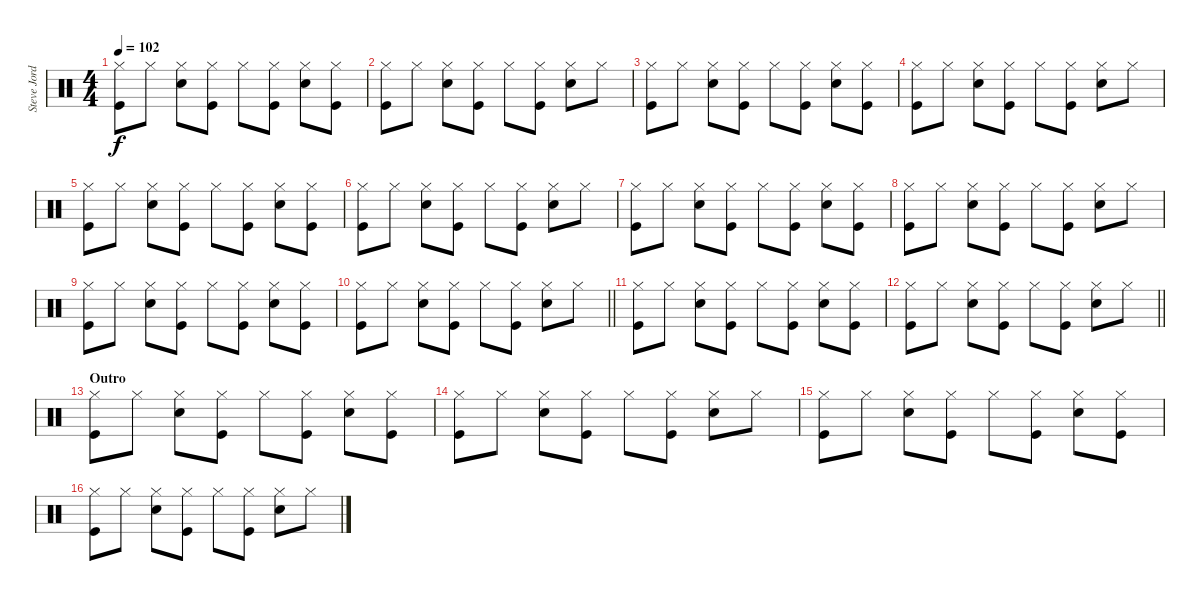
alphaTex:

\track ("Steve Jordan (Drums)" "Steve Jord") {instrument percussion}
\staff {score}
\articulation defaults
\ts (4 4)
\tempo 102
\clef neutral
\ks c
("Hi-Hat (closed)" "Kick (hit)").8{dy f} "Hi-Hat (closed)".8 ("Hi-Hat (closed)" "Snare (hit) 2").8 ("Hi-Hat (closed)" "Kick (hit)").8 "Hi-Hat (closed)".8 ("Hi-Hat (closed)" "Kick (hit)").8 ("Hi-Hat (closed)" "Snare (hit) 2").8 ("Hi-Hat (closed)" "Kick (hit)").8 |
("Hi-Hat (closed)" "Kick (hit)").8 "Hi-Hat (closed)".8 ("Hi-Hat (closed)" "Snare (hit) 2").8 ("Hi-Hat (closed)" "Kick (hit)").8 "Hi-Hat (closed)".8 ("Hi-Hat (closed)" "Kick (hit)").8 ("Hi-Hat (closed)" "Snare (hit) 2").8 "Hi-Hat (closed)".8 |
("Hi-Hat (closed)" "Kick (hit)").8 "Hi-Hat (closed)".8 ("Hi-Hat (closed)" "Snare (hit) 2").8 ("Hi-Hat (closed)" "Kick (hit)").8 "Hi-Hat (closed)".8 ("Hi-Hat (closed)" "Kick (hit)").8 ("Hi-Hat (closed)" "Snare (hit) 2").8 ("Hi-Hat (closed)" "Kick (hit)").8 |
("Hi-Hat (closed)" "Kick (hit)").8 "Hi-Hat (closed)".8 ("Hi-Hat (closed)" "Snare (hit) 2").8 ("Hi-Hat (closed)" "Kick (hit)").8 "Hi-Hat (closed)".8 ("Hi-Hat (closed)" "Kick (hit)").8 ("Hi-Hat (closed)" "Snare (hit) 2").8 "Hi-Hat (closed)".8 |
("Hi-Hat (closed)" "Kick (hit)").8 "Hi-Hat (closed)".8 ("Hi-Hat (closed)" "Snare (hit) 2").8 ("Hi-Hat (closed)" "Kick (hit)").8 "Hi-Hat (closed)".8 ("Hi-Hat (closed)" "Kick (hit)").8 ("Hi-Hat (closed)" "Snare (hit) 2").8 ("Hi-Hat (closed)" "Kick (hit)").8 |
("Hi-Hat (closed)" "Kick (hit)").8 "Hi-Hat (closed)".8 ("Hi-Hat (closed)" "Snare (hit) 2").8 ("Hi-Hat (closed)" "Kick (hit)").8 "Hi-Hat (closed)".8 ("Hi-Hat (closed)" "Kick (hit)").8 ("Hi-Hat (closed)" "Snare (hit) 2").8 "Hi-Hat (closed)".8 |
("Hi-Hat (closed)" "Kick (hit)").8 "Hi-Hat (closed)".8 ("Hi-Hat (closed)" "Snare (hit) 2").8 ("Hi-Hat (closed)" "Kick (hit)").8 "Hi-Hat (closed)".8 ("Hi-Hat (closed)" "Kick (hit)").8 ("Hi-Hat (closed)" "Snare (hit) 2").8 ("Hi-Hat (closed)" "Kick (hit)").8 |
("Hi-Hat (closed)" "Kick (hit)").8 "Hi-Hat (closed)".8 ("Hi-Hat (closed)" "Snare (hit) 2").8 ("Hi-Hat (closed)" "Kick (hit)").8 "Hi-Hat (closed)".8 ("Hi-Hat (closed)" "Kick (hit)").8 ("Hi-Hat (closed)" "Snare (hit) 2").8 "Hi-Hat (closed)".8 |
("Hi-Hat (closed)" "Kick (hit)").8 "Hi-Hat (closed)".8 ("Hi-Hat (closed)" "Snare (hit) 2").8 ("Hi-Hat (closed)" "Kick (hit)").8 "Hi-Hat (closed)".8 ("Hi-Hat (closed)" "Kick (hit)").8 ("Hi-Hat (closed)" "Snare (hit) 2").8 ("Hi-Hat (closed)" "Kick (hit)").8 |
\barLineRight lightlight
("Hi-Hat (closed)" "Kick (hit)").8 "Hi-Hat (closed)".8 ("Hi-Hat (closed)" "Snare (hit) 2").8 ("Hi-Hat (closed)" "Kick (hit)").8 "Hi-Hat (closed)".8 ("Hi-Hat (closed)" "Kick (hit)").8 ("Hi-Hat (closed)" "Snare (hit) 2").8 "Hi-Hat (closed)".8 |
\section ("" "")
("Hi-Hat (closed)" "Kick (hit)").8 "Hi-Hat (closed)".8 ("Hi-Hat (closed)" "Snare (hit) 2").8 ("Hi-Hat (closed)" "Kick (hit)").8 "Hi-Hat (closed)".8 ("Hi-Hat (closed)" "Kick (hit)").8 ("Hi-Hat (closed)" "Snare (hit) 2").8 ("Hi-Hat (closed)" "Kick (hit)").8 |
\barLineRight lightlight
("Hi-Hat (closed)" "Kick (hit)").8 "Hi-Hat (closed)".8 ("Hi-Hat (closed)" "Snare (hit) 2").8 ("Hi-Hat (closed)" "Kick (hit)").8 "Hi-Hat (closed)".8 ("Hi-Hat (closed)" "Kick (hit)").8 ("Hi-Hat (closed)" "Snare (hit) 2").8 "Hi-Hat (closed)".8 |
\section ("" "Outro")
("Hi-Hat (closed)" "Kick (hit)").8 "Hi-Hat (closed)".8 ("Hi-Hat (closed)" "Snare (hit) 2").8 ("Hi-Hat (closed)" "Kick (hit)").8 "Hi-Hat (closed)".8 ("Hi-Hat (closed)" "Kick (hit)").8 ("Hi-Hat (closed)" "Snare (hit) 2").8 ("Hi-Hat (closed)" "Kick (hit)").8 |
("Hi-Hat (closed)" "Kick (hit)").8 "Hi-Hat (closed)".8 ("Hi-Hat (closed)" "Snare (hit) 2").8 ("Hi-Hat (closed)" "Kick (hit)").8 "Hi-Hat (closed)".8 ("Hi-Hat (closed)" "Kick (hit)").8 ("Hi-Hat (closed)" "Snare (hit) 2").8 "Hi-Hat (closed)".8 |
("Hi-Hat (closed)" "Kick (hit)").8 "Hi-Hat (closed)".8 ("Hi-Hat (closed)" "Snare (hit) 2").8 ("Hi-Hat (closed)" "Kick (hit)").8 "Hi-Hat (closed)".8 ("Hi-Hat (closed)" "Kick (hit)").8 ("Hi-Hat (closed)" "Snare (hit) 2").8 ("Hi-Hat (closed)" "Kick (hit)").8 |
("Hi-Hat (closed)" "Kick (hit)").8 "Hi-Hat (closed)".8 ("Hi-Hat (closed)" "Snare (hit) 2").8 ("Hi-Hat (closed)" "Kick (hit)").8 "Hi-Hat (closed)".8 ("Hi-Hat (closed)" "Kick (hit)").8 ("Hi-Hat (closed)" "Snare (hit) 2").8 "Hi-Hat (closed)".8
